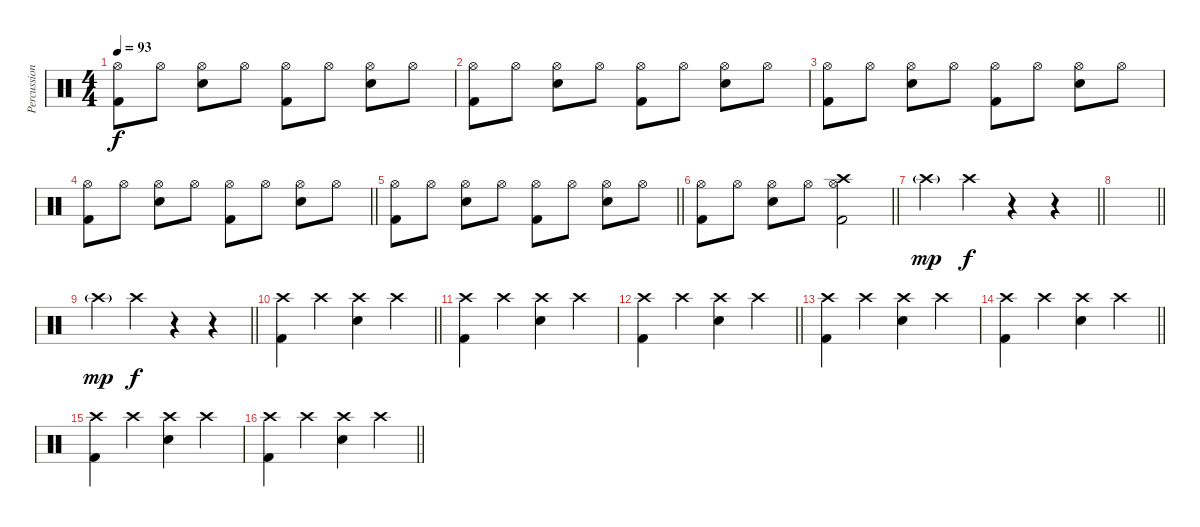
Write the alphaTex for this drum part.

\track ("Percussion" "Percussion") {instrument percussion}
\staff {score}
\articulation defaults
\ts (4 4)
\tempo 93
\clef neutral
\ks c
("Kick (hit) 2" "Hi-Hat (open)").8{dy f} "Hi-Hat (open)".8 ("Electric Snare (hit)" "Hi-Hat (open)").8 "Hi-Hat (open)".8 ("Kick (hit) 2" "Hi-Hat (open)").8 "Hi-Hat (open)".8 ("Electric Snare (hit)" "Hi-Hat (open)").8 "Hi-Hat (open)".8 |
("Kick (hit) 2" "Hi-Hat (open)").8 "Hi-Hat (open)".8 ("Electric Snare (hit)" "Hi-Hat (open)").8 "Hi-Hat (open)".8 ("Kick (hit) 2" "Hi-Hat (open)").8 "Hi-Hat (open)".8 ("Electric Snare (hit)" "Hi-Hat (open)").8 "Hi-Hat (open)".8 |
("Kick (hit) 2" "Hi-Hat (open)").8 "Hi-Hat (open)".8 ("Electric Snare (hit)" "Hi-Hat (open)").8 "Hi-Hat (open)".8 ("Kick (hit) 2" "Hi-Hat (open)").8 "Hi-Hat (open)".8 ("Electric Snare (hit)" "Hi-Hat (open)").8 "Hi-Hat (open)".8 |
\barLineRight lightlight
("Kick (hit) 2" "Hi-Hat (open)").8 "Hi-Hat (open)".8 ("Electric Snare (hit)" "Hi-Hat (open)").8 "Hi-Hat (open)".8 ("Kick (hit) 2" "Hi-Hat (open)").8 "Hi-Hat (open)".8 ("Electric Snare (hit)" "Hi-Hat (open)").8 "Hi-Hat (open)".8 |
\barLineRight lightlight
("Kick (hit) 2" "Hi-Hat (open)").8 "Hi-Hat (open)".8 ("Electric Snare (hit)" "Hi-Hat (open)").8 "Hi-Hat (open)".8 ("Kick (hit) 2" "Hi-Hat (open)").8 "Hi-Hat (open)".8 ("Electric Snare (hit)" "Hi-Hat (open)").8 "Hi-Hat (open)".8 |
\barLineRight lightlight
("Kick (hit) 2" "Hi-Hat (open)").8 "Hi-Hat (open)".8 ("Electric Snare (hit)" "Hi-Hat (open)").8 "Hi-Hat (open)".8 ("Kick (hit) 2" "Crash high (hit)" "Hi-Hat (open)").2 |
\barLineRight lightlight "Crash high (hit)"{g}.4{dy mp} "Crash high (hit)".4{dy f}
r.4 r.4 |
\barLineRight lightlight
|
\barLineRight lightlight "Crash high (hit)"{g}.4{dy mp} "Crash high (hit)".4{dy f}
r.4 r.4 |
\barLineRight lightlight
("Kick (hit) 2" "Crash high (hit)").4 "Crash high (hit)".4 ("Electric Snare (hit)" "Crash high (hit)").4 "Crash high (hit)".4 |
("Kick (hit) 2" "Crash high (hit)").4 "Crash high (hit)".4 ("Electric Snare (hit)" "Crash high (hit)").4 "Crash high (hit)".4 |
\barLineRight lightlight
("Kick (hit) 2" "Crash high (hit)").4 "Crash high (hit)".4 ("Electric Snare (hit)" "Crash high (hit)").4 "Crash high (hit)".4 |
("Kick (hit) 2" "Crash high (hit)").4 "Crash high (hit)".4 ("Electric Snare (hit)" "Crash high (hit)").4 "Crash high (hit)".4 |
\barLineRight lightlight
("Kick (hit) 2" "Crash high (hit)").4 "Crash high (hit)".4 ("Electric Snare (hit)" "Crash high (hit)").4 "Crash high (hit)".4 |
("Kick (hit) 2" "Crash high (hit)").4 "Crash high (hit)".4 ("Electric Snare (hit)" "Crash high (hit)").4 "Crash high (hit)".4 |
\barLineRight lightlight
("Kick (hit) 2" "Crash high (hit)").4 "Crash high (hit)".4 ("Electric Snare (hit)" "Crash high (hit)").4 "Crash high (hit)".4
